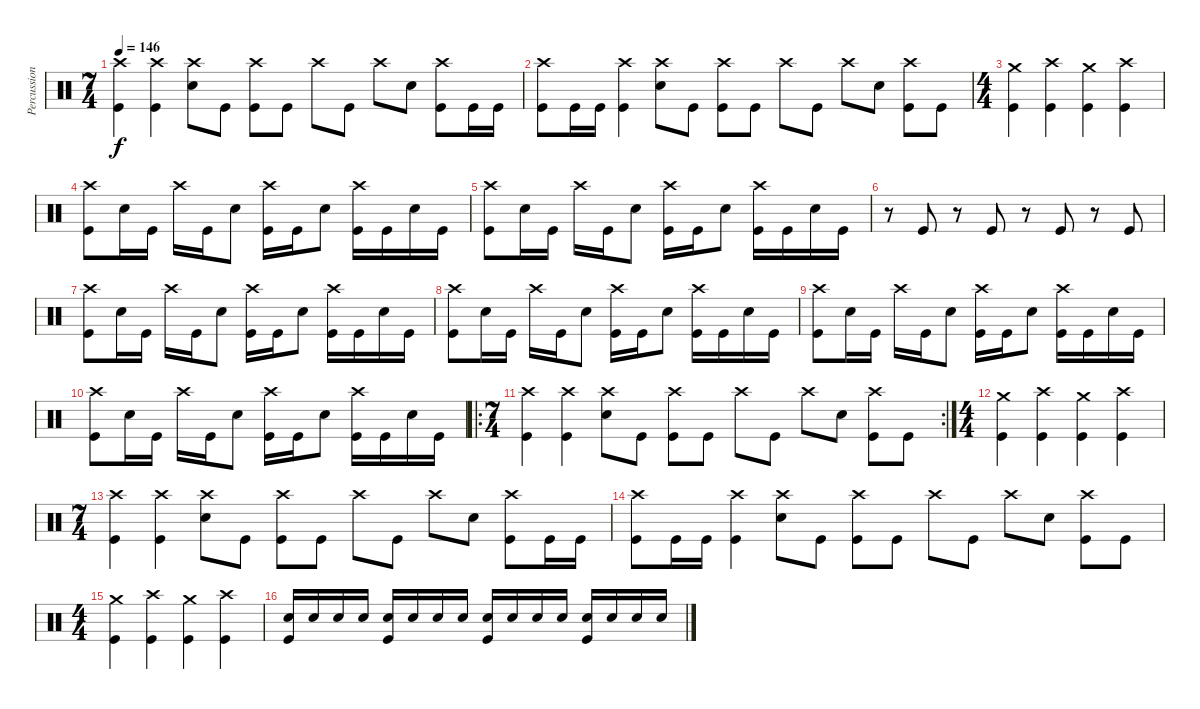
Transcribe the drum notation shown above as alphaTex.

\track ("Percussion" "Percussion") {instrument percussion}
\staff {score}
\articulation defaults
\ts (7 4)
\tempo 146
\clef neutral
\ks c
("Crash high (hit)" "Kick (hit)").4{dy f} ("Crash high (hit)" "Kick (hit)").4 ("Crash high (hit)" "Snare (hit) 2").8 "Kick (hit)".8 ("Crash high (hit)" "Kick (hit)").8 "Kick (hit)".8 "Crash high (hit)".8 "Kick (hit)".8 "Crash high (hit)".8 "Snare (hit) 2".8 ("Crash high (hit)" "Kick (hit)").8 "Kick (hit)".16 "Kick (hit)".16 |
("Crash high (hit)" "Kick (hit)").8 "Kick (hit)".16 "Kick (hit)".16 ("Crash high (hit)" "Kick (hit)").4 ("Crash high (hit)" "Snare (hit) 2").8 "Kick (hit)".8 ("Crash high (hit)" "Kick (hit)").8 "Kick (hit)".8 "Crash high (hit)".8 "Kick (hit)".8 "Crash high (hit)".8 "Snare (hit) 2".8 ("Crash high (hit)" "Kick (hit)").8 "Kick (hit)".8 |
\ts (4 4)
("Crash medium (hit)" "Kick (hit)").4 ("Crash high (hit)" "Kick (hit)").4 ("Crash medium (hit)" "Kick (hit)").4 ("Crash high (hit)" "Kick (hit)").4 |
("Crash high (hit)" "Kick (hit)").8{volume 13} "Snare (hit) 2".16 "Kick (hit)".16 "Crash high (hit)".16 "Kick (hit)".16 "Snare (hit) 2".8 ("Crash high (hit)" "Kick (hit)").16 "Kick (hit)".16 "Snare (hit) 2".8 ("Crash high (hit)" "Kick (hit)").16 "Kick (hit)".16 "Snare (hit) 2".16 "Kick (hit)".16 |
("Crash high (hit)" "Kick (hit)").8{volume 13} "Snare (hit) 2".16 "Kick (hit)".16 "Crash high (hit)".16 "Kick (hit)".16 "Snare (hit) 2".8 ("Crash high (hit)" "Kick (hit)").16 "Kick (hit)".16 "Snare (hit) 2".8 ("Crash high (hit)" "Kick (hit)").16 "Kick (hit)".16 "Snare (hit) 2".16 "Kick (hit)".16 |
r.8 "Kick (hit)".8 r.8 "Kick (hit)".8 r.8 "Kick (hit)".8 r.8 "Kick (hit)".8 |
("Crash high (hit)" "Kick (hit)").8{volume 13} "Snare (hit) 2".16 "Kick (hit)".16 "Crash high (hit)".16 "Kick (hit)".16 "Snare (hit) 2".8 ("Crash high (hit)" "Kick (hit)").16 "Kick (hit)".16 "Snare (hit) 2".8 ("Crash high (hit)" "Kick (hit)").16 "Kick (hit)".16 "Snare (hit) 2".16 "Kick (hit)".16 |
("Crash high (hit)" "Kick (hit)").8{volume 13} "Snare (hit) 2".16 "Kick (hit)".16 "Crash high (hit)".16 "Kick (hit)".16 "Snare (hit) 2".8 ("Crash high (hit)" "Kick (hit)").16 "Kick (hit)".16 "Snare (hit) 2".8 ("Crash high (hit)" "Kick (hit)").16 "Kick (hit)".16 "Snare (hit) 2".16 "Kick (hit)".16 |
("Crash high (hit)" "Kick (hit)").8{volume 13} "Snare (hit) 2".16 "Kick (hit)".16 "Crash high (hit)".16 "Kick (hit)".16 "Snare (hit) 2".8 ("Crash high (hit)" "Kick (hit)").16 "Kick (hit)".16 "Snare (hit) 2".8 ("Crash high (hit)" "Kick (hit)").16 "Kick (hit)".16 "Snare (hit) 2".16 "Kick (hit)".16 |
("Crash high (hit)" "Kick (hit)").8{volume 13} "Snare (hit) 2".16 "Kick (hit)".16 "Crash high (hit)".16 "Kick (hit)".16 "Snare (hit) 2".8 ("Crash high (hit)" "Kick (hit)").16 "Kick (hit)".16 "Snare (hit) 2".8 ("Crash high (hit)" "Kick (hit)").16 "Kick (hit)".16 "Snare (hit) 2".16 "Kick (hit)".16 |
\ro
\rc 2
\ts (7 4)
("Crash high (hit)" "Kick (hit)").4 ("Crash high (hit)" "Kick (hit)").4 ("Crash high (hit)" "Snare (hit) 2").8 "Kick (hit)".8 ("Crash high (hit)" "Kick (hit)").8 "Kick (hit)".8 "Crash high (hit)".8 "Kick (hit)".8 "Crash high (hit)".8 "Snare (hit) 2".8 ("Crash high (hit)" "Kick (hit)").8 "Kick (hit)".8 |
\ts (4 4)
("Crash medium (hit)" "Kick (hit)").4 ("Crash high (hit)" "Kick (hit)").4 ("Crash medium (hit)" "Kick (hit)").4 ("Crash high (hit)" "Kick (hit)").4 |
\ts (7 4)
("Crash high (hit)" "Kick (hit)").4 ("Crash high (hit)" "Kick (hit)").4 ("Crash high (hit)" "Snare (hit) 2").8 "Kick (hit)".8 ("Crash high (hit)" "Kick (hit)").8 "Kick (hit)".8 "Crash high (hit)".8 "Kick (hit)".8 "Crash high (hit)".8 "Snare (hit) 2".8 ("Crash high (hit)" "Kick (hit)").8 "Kick (hit)".16 "Kick (hit)".16 |
("Crash high (hit)" "Kick (hit)").8 "Kick (hit)".16 "Kick (hit)".16 ("Crash high (hit)" "Kick (hit)").4 ("Crash high (hit)" "Snare (hit) 2").8 "Kick (hit)".8 ("Crash high (hit)" "Kick (hit)").8 "Kick (hit)".8 "Crash high (hit)".8 "Kick (hit)".8 "Crash high (hit)".8 "Snare (hit) 2".8 ("Crash high (hit)" "Kick (hit)").8 "Kick (hit)".8 |
\ts (4 4)
("Crash medium (hit)" "Kick (hit)").4 ("Crash high (hit)" "Kick (hit)").4 ("Crash medium (hit)" "Kick (hit)").4 ("Crash high (hit)" "Kick (hit)").4 |
("Snare (hit) 2" "Kick (hit)").16 "Snare (hit) 2".16 "Snare (hit) 2".16 "Snare (hit) 2".16 ("Snare (hit) 2" "Kick (hit)").16 "Snare (hit) 2".16 "Snare (hit) 2".16 "Snare (hit) 2".16 ("Snare (hit) 2" "Kick (hit)").16 "Snare (hit) 2".16 "Snare (hit) 2".16 "Snare (hit) 2".16 ("Snare (hit) 2" "Kick (hit)").16 "Snare (hit) 2".16 "Snare (hit) 2".16 "Snare (hit) 2".16
